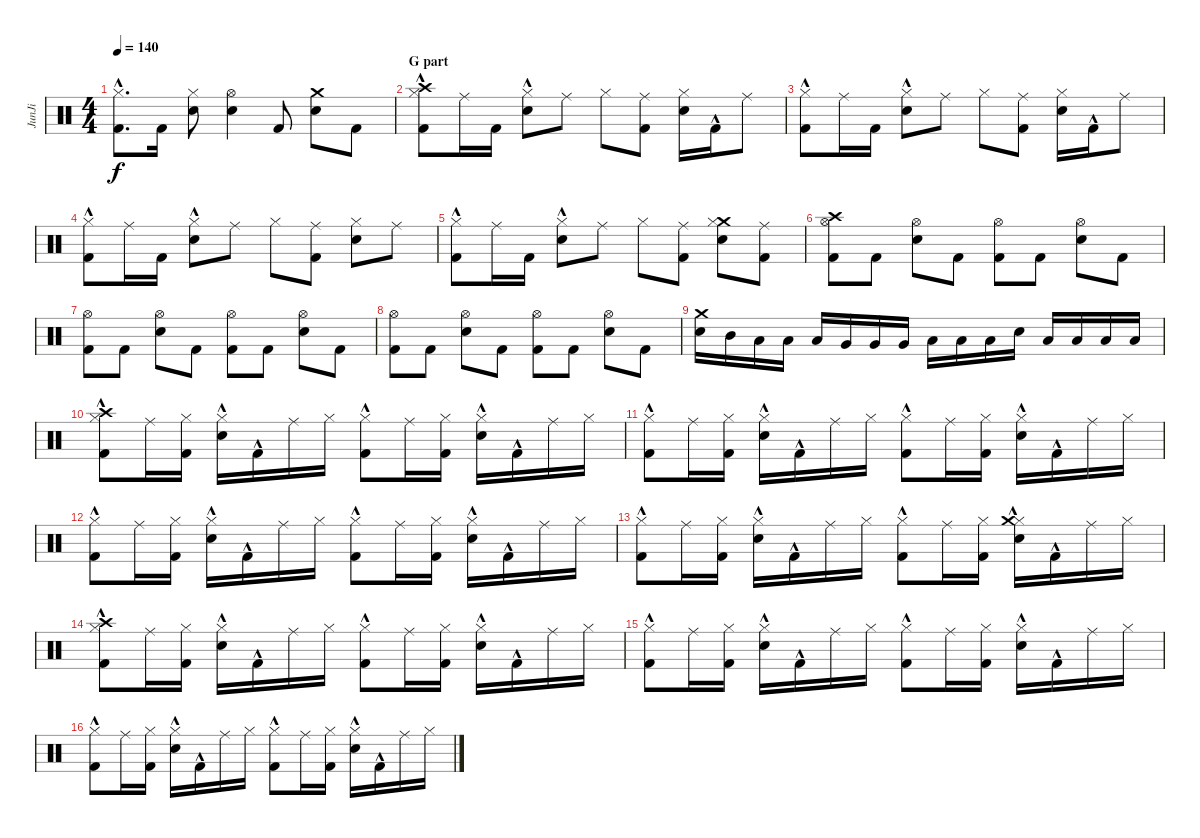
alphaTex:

\track ("JunJi" "JunJi") {instrument percussion}
\staff {score}
\articulation defaults
\ts (4 4)
\tempo 140
\clef neutral
\ks c
("Hi-Hat (closed)" "Kick (hit) 2"{hac}).8{d dy f} "Kick (hit) 2".16 ("Hi-Hat (closed)" "Electric Snare (hit)").8 ("Electric Snare (hit)" "Hi-Hat (open)").4 "Kick (hit) 2".8 ("Electric Snare (hit)" "Crash medium (hit)").8 "Kick (hit) 2".8 |
\section ("" "G part")
("Crash high (hit)" "Hi-Hat (closed)" "Kick (hit) 2"{hac}).8 "Ride (middle)".16 "Kick (hit) 2".16 ("Hi-Hat (closed)" "Electric Snare (hit)"{hac}).8 "Ride (middle)".8 "Hi-Hat (closed)".8 ("Ride (middle)" "Kick (hit) 2").8 ("Hi-Hat (closed)" "Electric Snare (hit)").16 "Kick (hit) 2"{hac}.16 "Ride (middle)".8 |
("Kick (hit) 2"{hac} "Hi-Hat (closed)").8 "Ride (middle)".16 "Kick (hit) 2".16 ("Hi-Hat (closed)" "Electric Snare (hit)"{hac}).8 "Ride (middle)".8 "Hi-Hat (closed)".8 ("Kick (hit) 2" "Ride (middle)").8 ("Electric Snare (hit)" "Hi-Hat (closed)").16 "Kick (hit) 2"{hac}.16 "Ride (middle)".8 |
("Kick (hit) 2"{hac} "Hi-Hat (closed)").8 "Ride (middle)".16 "Kick (hit) 2".16 ("Electric Snare (hit)"{hac} "Hi-Hat (closed)").8 "Ride (middle)".8 "Hi-Hat (closed)".8 ("Kick (hit) 2" "Ride (middle)").8 ("Electric Snare (hit)" "Hi-Hat (closed)").8 "Ride (middle)".8 |
("Hi-Hat (closed)" "Kick (hit) 2"{hac}).8 "Ride (middle)".16 "Kick (hit) 2".16 ("Electric Snare (hit)"{hac} "Hi-Hat (closed)").8 "Ride (middle)".8 "Hi-Hat (closed)".8 ("Kick (hit) 2" "Ride (middle)").8 ("Crash medium (hit)" "Hi-Hat (closed)" "Electric Snare (hit)").8 ("Kick (hit) 2" "Ride (middle)").8 |
("Hi-Hat (open)" "Crash high (hit)" "Kick (hit) 2").8 "Kick (hit) 2".8 ("Electric Snare (hit)" "Hi-Hat (open)").8 "Kick (hit) 2".8 ("Hi-Hat (open)" "Kick (hit) 2").8 "Kick (hit) 2".8 ("Hi-Hat (open)" "Electric Snare (hit)").8 "Kick (hit) 2".8 |
("Kick (hit) 2" "Hi-Hat (open)").8 "Kick (hit) 2".8 ("Electric Snare (hit)" "Hi-Hat (open)").8 "Kick (hit) 2".8 ("Kick (hit) 2" "Hi-Hat (open)").8 "Kick (hit) 2".8 ("Hi-Hat (open)" "Electric Snare (hit)").8 "Kick (hit) 2".8 |
("Kick (hit) 2" "Hi-Hat (open)").8 "Kick (hit) 2".8 ("Electric Snare (hit)" "Hi-Hat (open)").8 "Kick (hit) 2".8 ("Kick (hit) 2" "Hi-Hat (open)").8 "Kick (hit) 2".8 ("Hi-Hat (open)" "Electric Snare (hit)").8 "Kick (hit) 2".8 |
("Crash medium (hit)" "Electric Snare (hit)").16 "Mid Tom (hit)".16 "Low Tom (hit)".16 "Low Tom (hit)".16 "Low Tom (hit)".16 "Very Low Tom (hit)".16 "Very Low Tom (hit)".16 "Very Low Tom (hit)".16 "Low Floor Tom (hit)".16 "Low Floor Tom (hit)".16 "Low Floor Tom (hit)".16 "Electric Snare (hit)".16 "Low Floor Tom (hit)".16 "Low Floor Tom (hit)".16 "Low Floor Tom (hit)".16 "Low Floor Tom (hit)".16 |
("Hi-Hat (closed)"{hac} "Crash high (hit)" "Kick (hit) 2"{hac}).8 "Ride (middle)".16 ("Hi-Hat (closed)" "Kick (hit) 2").16 ("Electric Snare (hit)" "Hi-Hat (closed)"{hac}).16 "Kick (hit) 2"{hac}.16 "Ride (middle)".16 "Hi-Hat (closed)".16 ("Kick (hit) 2"{hac} "Hi-Hat (closed)"{hac}).8 "Ride (middle)".16 ("Kick (hit) 2" "Hi-Hat (closed)").16 ("Electric Snare (hit)" "Hi-Hat (closed)"{hac}).16 "Kick (hit) 2"{hac}.16 "Ride (middle)".16 "Hi-Hat (closed)".16 |
("Kick (hit) 2"{hac} "Hi-Hat (closed)"{hac}).8 "Ride (middle)".16 ("Hi-Hat (closed)" "Kick (hit) 2").16 ("Hi-Hat (closed)"{hac} "Electric Snare (hit)").16 "Kick (hit) 2"{hac}.16 "Ride (middle)".16 "Hi-Hat (closed)".16 ("Hi-Hat (closed)"{hac} "Kick (hit) 2"{hac}).8 "Ride (middle)".16 ("Kick (hit) 2" "Hi-Hat (closed)").16 ("Hi-Hat (closed)"{hac} "Electric Snare (hit)").16 "Kick (hit) 2"{hac}.16 "Ride (middle)".16 "Hi-Hat (closed)".16 |
("Kick (hit) 2"{hac} "Hi-Hat (closed)"{hac}).8 "Ride (middle)".16 ("Hi-Hat (closed)" "Kick (hit) 2").16 ("Electric Snare (hit)" "Hi-Hat (closed)"{hac}).16 "Kick (hit) 2"{hac}.16 "Ride (middle)".16 "Hi-Hat (closed)".16 ("Kick (hit) 2"{hac} "Hi-Hat (closed)"{hac}).8 "Ride (middle)".16 ("Hi-Hat (closed)" "Kick (hit) 2").16 ("Electric Snare (hit)" "Hi-Hat (closed)"{hac}).16 "Kick (hit) 2"{hac}.16 "Ride (middle)".16 "Hi-Hat (closed)".16 |
("Hi-Hat (closed)"{hac} "Kick (hit) 2"{hac}).8 "Ride (middle)".16 ("Hi-Hat (closed)" "Kick (hit) 2").16 ("Electric Snare (hit)" "Hi-Hat (closed)"{hac}).16 "Kick (hit) 2"{hac}.16 "Ride (middle)".16 "Hi-Hat (closed)".16 ("Hi-Hat (closed)"{hac} "Kick (hit) 2"{hac}).8 "Ride (middle)".16 ("Hi-Hat (closed)" "Kick (hit) 2").16 ("Electric Snare (hit)" "Hi-Hat (closed)"{hac} "Crash medium (hit)").16 "Kick (hit) 2"{hac}.16 "Ride (middle)".16 "Hi-Hat (closed)".16 |
("Crash high (hit)" "Kick (hit) 2"{hac} "Hi-Hat (closed)"{hac}).8 "Ride (middle)".16 ("Kick (hit) 2" "Hi-Hat (closed)").16 ("Electric Snare (hit)" "Hi-Hat (closed)"{hac}).16 "Kick (hit) 2"{hac}.16 "Ride (middle)".16 "Hi-Hat (closed)".16 ("Hi-Hat (closed)"{hac} "Kick (hit) 2"{hac}).8 "Ride (middle)".16 ("Kick (hit) 2" "Hi-Hat (closed)").16 ("Hi-Hat (closed)"{hac} "Electric Snare (hit)").16 "Kick (hit) 2"{hac}.16 "Ride (middle)".16 "Hi-Hat (closed)".16 |
("Hi-Hat (closed)"{hac} "Kick (hit) 2"{hac}).8 "Ride (middle)".16 ("Hi-Hat (closed)" "Kick (hit) 2").16 ("Electric Snare (hit)" "Hi-Hat (closed)"{hac}).16 "Kick (hit) 2"{hac}.16 "Ride (middle)".16 "Hi-Hat (closed)".16 ("Kick (hit) 2"{hac} "Hi-Hat (closed)"{hac}).8 "Ride (middle)".16 ("Hi-Hat (closed)" "Kick (hit) 2").16 ("Electric Snare (hit)" "Hi-Hat (closed)"{hac}).16 "Kick (hit) 2"{hac}.16 "Ride (middle)".16 "Hi-Hat (closed)".16 |
("Kick (hit) 2"{hac} "Hi-Hat (closed)"{hac}).8 "Ride (middle)".16 ("Hi-Hat (closed)" "Kick (hit) 2").16 ("Hi-Hat (closed)"{hac} "Electric Snare (hit)").16 "Kick (hit) 2"{hac}.16 "Ride (middle)".16 "Hi-Hat (closed)".16 ("Kick (hit) 2"{hac} "Hi-Hat (closed)"{hac}).8 "Ride (middle)".16 ("Kick (hit) 2" "Hi-Hat (closed)").16 ("Electric Snare (hit)" "Hi-Hat (closed)"{hac}).16 "Kick (hit) 2"{hac}.16 "Ride (middle)".16 "Hi-Hat (closed)".16
